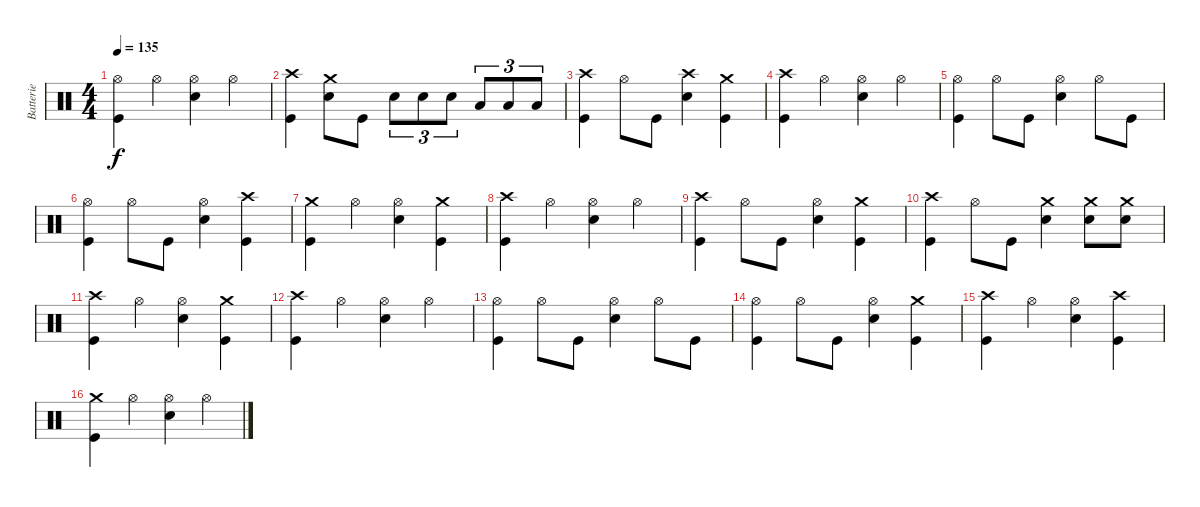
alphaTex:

\track ("Batterie" "Batterie") {instrument percussion}
\staff {score}
\articulation defaults
\ts (4 4)
\tempo 135
\clef neutral
\ks c
("Hi-Hat (open)" "Kick (hit)").4{dy f} "Hi-Hat (open)".4 ("Hi-Hat (open)" "Electric Snare (hit)").4 "Hi-Hat (open)".4 |
("Crash high (hit)" "Kick (hit)").4 ("Crash medium (hit)" "Electric Snare (hit)").8 "Kick (hit)".8 "Electric Snare (hit)".8{tu (3 2)} "Electric Snare (hit)".8{tu (3 2)} "Electric Snare (hit)".8{tu (3 2)} "Low Tom (hit)".8{tu (3 2)} "Low Tom (hit)".8{tu (3 2)} "Low Tom (hit)".8{tu (3 2)} |
("Crash high (hit)" "Kick (hit)").4 "Hi-Hat (open)".8 "Kick (hit)".8 ("Crash high (hit)" "Electric Snare (hit)").4 ("Crash medium (hit)" "Kick (hit)").4 |
("Crash high (hit)" "Kick (hit)").4 "Hi-Hat (open)".4 ("Hi-Hat (open)" "Electric Snare (hit)").4 "Hi-Hat (open)".4 |
("Hi-Hat (open)" "Kick (hit)").4 "Hi-Hat (open)".8 "Kick (hit)".8 ("Hi-Hat (open)" "Electric Snare (hit)").4 "Hi-Hat (open)".8 "Kick (hit)".8 |
("Hi-Hat (open)" "Kick (hit)").4 "Hi-Hat (open)".8 "Kick (hit)".8 ("Hi-Hat (open)" "Electric Snare (hit)").4 ("Crash high (hit)" "Kick (hit)").4 |
("Crash medium (hit)" "Kick (hit)").4 "Hi-Hat (open)".4 ("Hi-Hat (open)" "Electric Snare (hit)").4 ("Crash medium (hit)" "Kick (hit)").4 |
("Crash high (hit)" "Kick (hit)").4 "Hi-Hat (open)".4 ("Hi-Hat (open)" "Electric Snare (hit)").4 "Hi-Hat (open)".4 |
("Crash high (hit)" "Kick (hit)").4 "Hi-Hat (open)".8 "Kick (hit)".8 ("Hi-Hat (open)" "Electric Snare (hit)").4 ("Crash medium (hit)" "Kick (hit)").4 |
("Crash high (hit)" "Kick (hit)").4 "Hi-Hat (open)".8 "Kick (hit)".8 ("Crash medium (hit)" "Electric Snare (hit)").4 ("Crash medium (hit)" "Electric Snare (hit)").8 ("Crash medium (hit)" "Electric Snare (hit)").8 |
("Crash high (hit)" "Kick (hit)").4 "Hi-Hat (open)".4 ("Hi-Hat (open)" "Electric Snare (hit)").4 ("Crash medium (hit)" "Kick (hit)").4 |
("Crash high (hit)" "Kick (hit)").4 "Hi-Hat (open)".4 ("Hi-Hat (open)" "Electric Snare (hit)").4 "Hi-Hat (open)".4 |
("Hi-Hat (open)" "Kick (hit)").4 "Hi-Hat (open)".8 "Kick (hit)".8 ("Hi-Hat (open)" "Electric Snare (hit)").4 "Hi-Hat (open)".8 "Kick (hit)".8 |
("Hi-Hat (open)" "Kick (hit)").4 "Hi-Hat (open)".8 "Kick (hit)".8 ("Hi-Hat (open)" "Electric Snare (hit)").4 ("Crash medium (hit)" "Kick (hit)").4 |
("Crash high (hit)" "Kick (hit)").4 "Hi-Hat (open)".4 ("Hi-Hat (open)" "Electric Snare (hit)").4 ("Crash high (hit)" "Kick (hit)").4 |
("Crash medium (hit)" "Kick (hit)").4 "Hi-Hat (open)".4 ("Hi-Hat (open)" "Electric Snare (hit)").4 "Hi-Hat (open)".4
